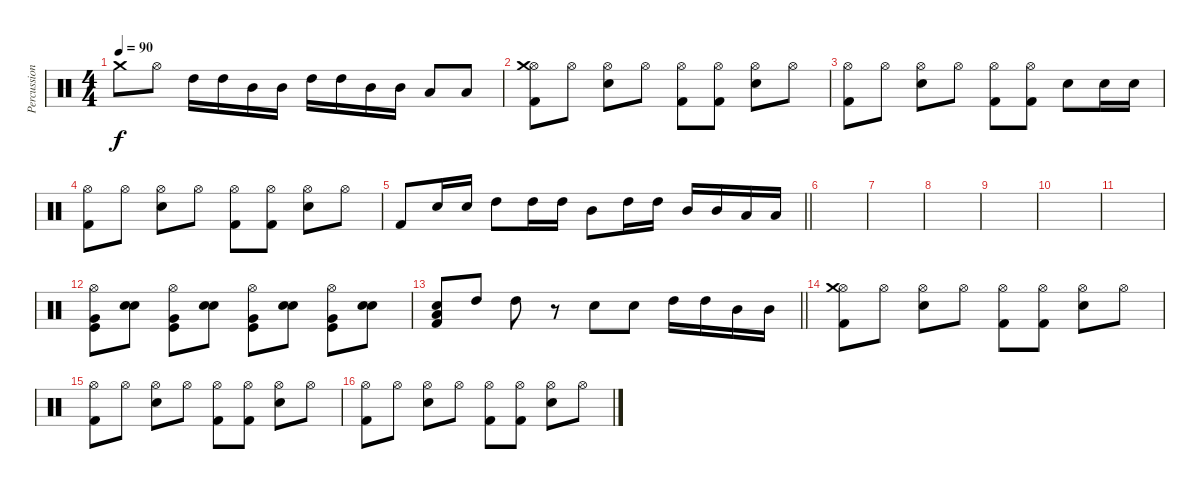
\track ("Percussion" "Percussion") {instrument percussion}
\staff {score}
\articulation defaults
\ts (4 4)
\tempo 90
\clef neutral
\ks c "Crash medium (hit)".8{dy f} "Hi-Hat (open)".8 "High Tom (hit)".16 "High Tom (hit)".16 "Mid Tom (hit)".16 "Mid Tom (hit)".16 "High Tom (hit)".16 "High Tom (hit)".16 "Mid Tom (hit)".16 "Mid Tom (hit)".16 "Low Tom (hit)".8 "Low Tom (hit)".8
|
("Hi-Hat (open)" "Kick (hit) 2" "Crash medium (hit)").8 "Hi-Hat (open)".8 ("Hi-Hat (open)" "Electric Snare (hit)").8 "Hi-Hat (open)".8 ("Hi-Hat (open)" "Kick (hit) 2").8 ("Hi-Hat (open)" "Kick (hit) 2").8 ("Hi-Hat (open)" "Electric Snare (hit)").8 "Hi-Hat (open)".8 |
("Hi-Hat (open)" "Kick (hit) 2").8 "Hi-Hat (open)".8 ("Hi-Hat (open)" "Electric Snare (hit)").8 "Hi-Hat (open)".8 ("Hi-Hat (open)" "Kick (hit) 2").8 ("Kick (hit) 2" "Hi-Hat (open)").8 "Electric Snare (hit)".8 "Electric Snare (hit)".16 "Electric Snare (hit)".16 |
("Hi-Hat (open)" "Kick (hit) 2").8 "Hi-Hat (open)".8 ("Hi-Hat (open)" "Electric Snare (hit)").8 "Hi-Hat (open)".8 ("Hi-Hat (open)" "Kick (hit) 2").8 ("Hi-Hat (open)" "Kick (hit) 2").8 ("Hi-Hat (open)" "Electric Snare (hit)").8 "Hi-Hat (open)".8 |
\barLineRight lightlight "Kick (hit) 2".8 "Electric Snare (hit)".16 "Electric Snare (hit)".16 "High Tom (hit)".8 "High Tom (hit)".16 "High Tom (hit)".16 "Mid Tom (hit)".8 "High Tom (hit)".16 "High Tom (hit)".16 "Mid Tom (hit)".16 "Mid Tom (hit)".16 "Low Tom (hit)".16 "Low Tom (hit)".16
|
|
|
|
|
|
|
("Hi-Hat (open)" "Very Low Tom (hit)" "Kick (hit)").8 ("Electric Snare (hit)" "Electric Snare (hit)").8 ("Hi-Hat (open)" "Very Low Tom (hit)" "Kick (hit)").8 ("Electric Snare (hit)" "Electric Snare (hit)").8 ("Hi-Hat (open)" "Very Low Tom (hit)" "Kick (hit)").8 ("Electric Snare (hit)" "Electric Snare (hit)").8 ("Hi-Hat (open)" "Very Low Tom (hit)" "Kick (hit)").8 ("Electric Snare (hit)" "Electric Snare (hit)").8 |
\barLineRight lightlight
("Electric Snare (hit)" "Low Floor Tom (hit)" "Kick (hit) 2").8 "High Tom (hit)".8 "High Tom (hit)".8 r.8 "Electric Snare (hit)".8 "Electric Snare (hit)".8 "High Tom (hit)".16 "High Tom (hit)".16 "Mid Tom (hit)".16 "Mid Tom (hit)".16 |
("Hi-Hat (open)" "Kick (hit) 2" "Crash medium (hit)").8 "Hi-Hat (open)".8 ("Hi-Hat (open)" "Electric Snare (hit)").8 "Hi-Hat (open)".8 ("Hi-Hat (open)" "Kick (hit) 2").8 ("Hi-Hat (open)" "Kick (hit) 2").8 ("Hi-Hat (open)" "Electric Snare (hit)").8 "Hi-Hat (open)".8 |
("Hi-Hat (open)" "Kick (hit) 2").8 "Hi-Hat (open)".8 ("Hi-Hat (open)" "Electric Snare (hit)").8 "Hi-Hat (open)".8 ("Hi-Hat (open)" "Kick (hit) 2").8 ("Hi-Hat (open)" "Kick (hit) 2").8 ("Hi-Hat (open)" "Electric Snare (hit)").8 "Hi-Hat (open)".8 |
("Hi-Hat (open)" "Kick (hit) 2").8 "Hi-Hat (open)".8 ("Hi-Hat (open)" "Electric Snare (hit)").8 "Hi-Hat (open)".8 ("Hi-Hat (open)" "Kick (hit) 2").8 ("Hi-Hat (open)" "Kick (hit) 2").8 ("Hi-Hat (open)" "Electric Snare (hit)").8 "Hi-Hat (open)".8
